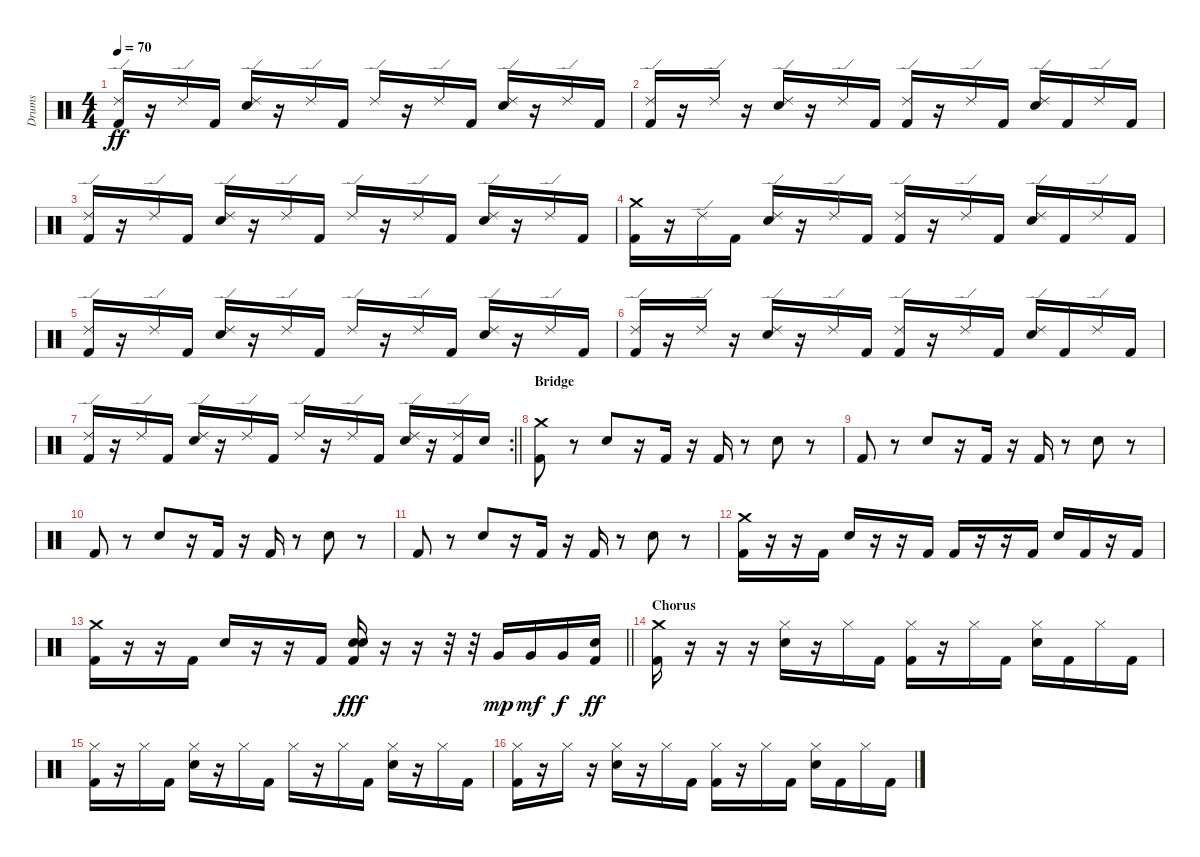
\track ("Drums" "Drums") {instrument percussion}
\staff {score}
\articulation defaults
\ts (4 4)
\tempo 70
\clef neutral
\ks c
("Ride (edge) 2" "Kick (hit) 2").16{dy ff} r.16 "Ride (edge) 2".16 "Kick (hit) 2".16 ("Ride (edge) 2" "Snare (hit) 2").16 r.16 "Ride (edge) 2".16 "Kick (hit) 2".16 "Ride (edge) 2".16 r.16 "Ride (edge) 2".16 "Kick (hit) 2".16 ("Ride (edge) 2" "Snare (hit) 2").16 r.16 "Ride (edge) 2".16 "Kick (hit) 2".16 |
("Ride (edge) 2" "Kick (hit) 2").16 r.16 "Ride (edge) 2".16 r.16 ("Ride (edge) 2" "Snare (hit) 2").16 r.16 "Ride (edge) 2".16 "Kick (hit) 2".16 ("Ride (edge) 2" "Kick (hit) 2").16 r.16 "Ride (edge) 2".16 "Kick (hit) 2".16 ("Ride (edge) 2" "Snare (hit) 2").16 "Kick (hit) 2".16 "Ride (edge) 2".16 "Kick (hit) 2".16 |
("Ride (edge) 2" "Kick (hit) 2").16 r.16 "Ride (edge) 2".16 "Kick (hit) 2".16 ("Ride (edge) 2" "Snare (hit) 2").16 r.16 "Ride (edge) 2".16 "Kick (hit) 2".16 "Ride (edge) 2".16 r.16 "Ride (edge) 2".16 "Kick (hit) 2".16 ("Ride (edge) 2" "Snare (hit) 2").16 r.16 "Ride (edge) 2".16 "Kick (hit) 2".16 |
("Crash medium (hit)" "Kick (hit) 2").16 r.16 "Ride (edge) 2".16 "Kick (hit) 2".16 ("Ride (edge) 2" "Snare (hit) 2").16 r.16 "Ride (edge) 2".16 "Kick (hit) 2".16 ("Ride (edge) 2" "Kick (hit) 2").16 r.16 "Ride (edge) 2".16 "Kick (hit) 2".16 ("Ride (edge) 2" "Snare (hit) 2").16 "Kick (hit) 2".16 "Ride (edge) 2".16 "Kick (hit) 2".16 |
("Ride (edge) 2" "Kick (hit) 2").16 r.16 "Ride (edge) 2".16 "Kick (hit) 2".16 ("Ride (edge) 2" "Snare (hit) 2").16 r.16 "Ride (edge) 2".16 "Kick (hit) 2".16 "Ride (edge) 2".16 r.16 "Ride (edge) 2".16 "Kick (hit) 2".16 ("Ride (edge) 2" "Snare (hit) 2").16 r.16 "Ride (edge) 2".16 "Kick (hit) 2".16 |
("Ride (edge) 2" "Kick (hit) 2").16 r.16 "Ride (edge) 2".16 r.16 ("Ride (edge) 2" "Snare (hit) 2").16 r.16 "Ride (edge) 2".16 "Kick (hit) 2".16 ("Ride (edge) 2" "Kick (hit) 2").16 r.16 "Ride (edge) 2".16 "Kick (hit) 2".16 ("Ride (edge) 2" "Snare (hit) 2").16 "Kick (hit) 2".16 "Ride (edge) 2".16 "Kick (hit) 2".16 |
\rc 2
\barLineRight lightlight
("Ride (edge) 2" "Kick (hit) 2").16 r.16 "Ride (edge) 2".16 "Kick (hit) 2".16 ("Ride (edge) 2" "Snare (hit) 2").16 r.16 "Ride (edge) 2".16 "Kick (hit) 2".16 "Ride (edge) 2".16 r.16 "Ride (edge) 2".16 "Kick (hit) 2".16 ("Ride (edge) 2" "Snare (hit) 2").16 r.16 ("Ride (edge) 2" "Kick (hit) 2").16 "Snare (hit) 2".16 |
\section ("" "Bridge")
("Crash medium (hit)" "Kick (hit) 2").8 r.8 "Snare (hit) 2".8 r.16 "Kick (hit) 2".16 r.16 "Kick (hit) 2".16 r.8 "Snare (hit) 2".8 r.8 |
"Kick (hit) 2".8 r.8 "Snare (hit) 2".8 r.16 "Kick (hit) 2".16 r.16 "Kick (hit) 2".16 r.8 "Snare (hit) 2".8 r.8 |
"Kick (hit) 2".8 r.8 "Snare (hit) 2".8 r.16 "Kick (hit) 2".16 r.16 "Kick (hit) 2".16 r.8 "Snare (hit) 2".8 r.8 |
"Kick (hit) 2".8 r.8 "Snare (hit) 2".8 r.16 "Kick (hit) 2".16 r.16 "Kick (hit) 2".16 r.8 "Snare (hit) 2".8 r.8 |
("Crash medium (hit)" "Kick (hit) 2").16 r.16 r.16 "Kick (hit) 2".16 "Snare (hit) 2".16 r.16 r.16 "Kick (hit) 2".16 "Kick (hit) 2".16 r.16 r.16 "Kick (hit) 2".16 "Snare (hit) 2".16 "Kick (hit) 2".16 r.16 "Kick (hit) 2".16 |
\barLineRight lightlight
("Crash medium (hit)" "Kick (hit) 2").16 r.16 r.16 "Kick (hit) 2".16 "Snare (hit) 2".16 r.16 r.16 "Kick (hit) 2".16 ("Kick (hit) 2" "Snare (hit) 2" "Snare (hit) 2").16{dy fff} r.16 r.16 r.32 r.32 "Very Low Tom (hit)".16{dy mp} "Very Low Tom (hit)".16{dy mf} "Very Low Tom (hit)".16{dy f} ("Snare (hit) 2" "Kick (hit) 2").16{dy ff} |
\section ("" "Chorus")
("Crash medium (hit)" "Kick (hit) 2").16 r.16 r.16 r.16 ("Hi-Hat (closed)" "Snare (hit) 2").16 r.16 "Hi-Hat (closed)".16 "Kick (hit) 2".16 ("Hi-Hat (closed)" "Kick (hit) 2").16 r.16 "Hi-Hat (closed)".16 "Kick (hit) 2".16 ("Hi-Hat (closed)" "Snare (hit) 2").16 "Kick (hit) 2".16 "Hi-Hat (closed)".16 "Kick (hit) 2".16 |
("Hi-Hat (closed)" "Kick (hit) 2").16 r.16 "Hi-Hat (closed)".16 "Kick (hit) 2".16 ("Hi-Hat (closed)" "Snare (hit) 2").16 r.16 "Hi-Hat (closed)".16 "Kick (hit) 2".16 "Hi-Hat (closed)".16 r.16 "Hi-Hat (closed)".16 "Kick (hit) 2".16 ("Hi-Hat (closed)" "Snare (hit) 2").16 r.16 "Hi-Hat (closed)".16 "Kick (hit) 2".16 |
("Hi-Hat (closed)" "Kick (hit) 2").16 r.16 "Hi-Hat (closed)".16 r.16 ("Hi-Hat (closed)" "Snare (hit) 2").16 r.16 "Hi-Hat (closed)".16 "Kick (hit) 2".16 ("Hi-Hat (closed)" "Kick (hit) 2").16 r.16 "Hi-Hat (closed)".16 "Kick (hit) 2".16 ("Hi-Hat (closed)" "Snare (hit) 2").16 "Kick (hit) 2".16 "Hi-Hat (closed)".16 "Kick (hit) 2".16
